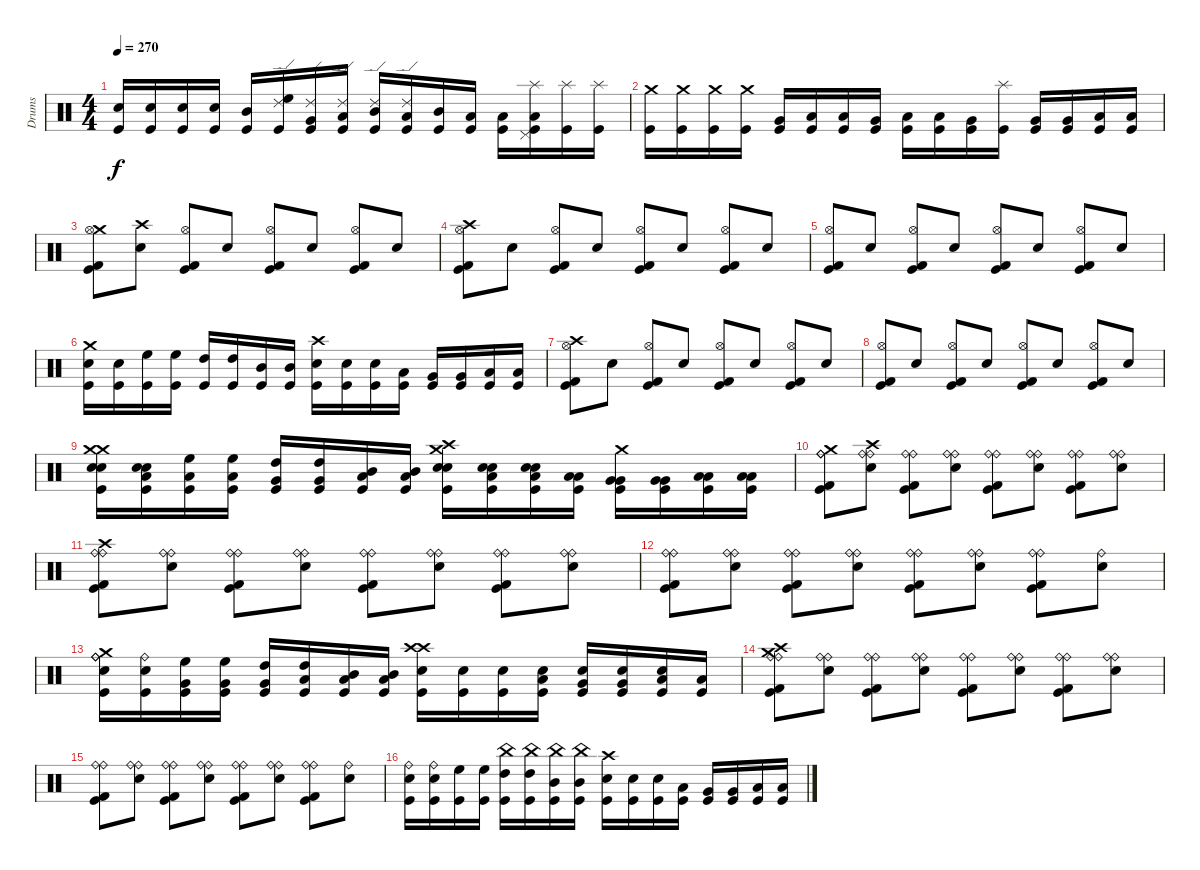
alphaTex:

\track ("Drums" "Drums") {instrument percussion}
\staff {score}
\articulation defaults
\ts (4 4)
\tempo 270
\clef neutral
\ks c
("Electric Snare (hit)" "Kick (hit)").16{dy f} ("Electric Snare (hit)" "Kick (hit)").16 ("Electric Snare (hit)" "Kick (hit)").16 ("Electric Snare (hit)" "Kick (hit)").16 ("Mid Tom (hit)" "Kick (hit)").16 ("Ride (edge) 2" "High Floor Tom (hit)" "Kick (hit)").16 ("Ride (edge) 2" "Very Low Tom (hit)" "Kick (hit)").16 ("Ride (edge) 2" "Low Tom (hit)" "Kick (hit)").16 ("Ride (edge) 2" "Mid Tom (hit)" "Kick (hit)").16 ("Ride (edge) 2" "Low Floor Tom (hit)" "Kick (hit)").16 ("Mid Tom (hit)" "Kick (hit)").16 ("Low Tom (hit)" "Kick (hit)").16 ("Low Floor Tom (hit)" "Kick (hit)").16 ("Pedal Hi-Hat (hit)" "Low Floor Tom (hit)" "Kick (hit)" "Splash (hit)").16 ("Kick (hit)" "Splash (hit)").16 ("Kick (hit)" "Splash (hit)").16 |
("Crash medium (hit)" "Kick (hit)").16 ("Crash medium (hit)" "Kick (hit)").16 ("Crash medium (hit)" "Kick (hit)").16 ("Crash medium (hit)" "Kick (hit)").16 ("Very Low Tom (hit)" "Kick (hit)").16 ("Low Tom (hit)" "Kick (hit)").16 ("Low Floor Tom (hit)" "Kick (hit)").16 ("Very Low Tom (hit)" "Kick (hit)").16 ("Low Floor Tom (hit)" "Kick (hit)").16 ("Low Floor Tom (hit)" "Kick (hit)").16 ("Very Low Tom (hit)" "Kick (hit)").16 ("Splash (hit)" "Kick (hit)").16 ("Very Low Tom (hit)" "Kick (hit)").16 ("Very Low Tom (hit)" "Kick (hit)").16 ("Low Floor Tom (hit)" "Kick (hit)").16 ("Low Floor Tom (hit)" "Kick (hit)").16 |
("Crash medium (hit)" "Hi-Hat (open)" "Kick (hit) 2" "Kick (hit)").8 ("Crash high (hit)" "Electric Snare (hit)").8 ("Hi-Hat (open)" "Kick (hit) 2" "Kick (hit)").8 "Electric Snare (hit)".8 ("Hi-Hat (open)" "Kick (hit) 2" "Kick (hit)").8 "Electric Snare (hit)".8 ("Hi-Hat (open)" "Kick (hit) 2" "Kick (hit)").8 "Electric Snare (hit)".8 |
("Crash high (hit)" "Hi-Hat (open)" "Kick (hit) 2" "Kick (hit)").8 "Electric Snare (hit)".8 ("Hi-Hat (open)" "Kick (hit) 2" "Kick (hit)").8 "Electric Snare (hit)".8 ("Hi-Hat (open)" "Kick (hit) 2" "Kick (hit)").8 "Electric Snare (hit)".8 ("Hi-Hat (open)" "Kick (hit) 2" "Kick (hit)").8 "Electric Snare (hit)".8 |
("Hi-Hat (open)" "Kick (hit) 2" "Kick (hit)").8 "Electric Snare (hit)".8 ("Hi-Hat (open)" "Kick (hit) 2" "Kick (hit)").8 "Electric Snare (hit)".8 ("Hi-Hat (open)" "Kick (hit) 2" "Kick (hit)").8 "Electric Snare (hit)".8 ("Hi-Hat (open)" "Kick (hit) 2" "Kick (hit)").8 "Electric Snare (hit)".8 |
("Crash medium (hit)" "Electric Snare (hit)" "Kick (hit)").16 ("Electric Snare (hit)" "Kick (hit)").16 ("High Floor Tom (hit)" "Kick (hit)").16 ("High Floor Tom (hit)" "Kick (hit)").16 ("High Tom (hit)" "Kick (hit)").16 ("High Tom (hit)" "Kick (hit)").16 ("Mid Tom (hit)" "Kick (hit)").16 ("Mid Tom (hit)" "Kick (hit)").16 ("Crash high (hit)" "Electric Snare (hit)" "Kick (hit)").16 ("Electric Snare (hit)" "Kick (hit)").16 ("Electric Snare (hit)" "Kick (hit)").16 ("Low Floor Tom (hit)" "Kick (hit)").16 ("Very Low Tom (hit)" "Kick (hit)").16 ("Very Low Tom (hit)" "Kick (hit)").16 ("Low Floor Tom (hit)" "Kick (hit)").16 ("Low Floor Tom (hit)" "Kick (hit)").16 |
("Crash high (hit)" "Hi-Hat (open)" "Kick (hit) 2" "Kick (hit)").8 "Electric Snare (hit)".8 ("Hi-Hat (open)" "Kick (hit) 2" "Kick (hit)").8 "Electric Snare (hit)".8 ("Hi-Hat (open)" "Kick (hit) 2" "Kick (hit)").8 "Electric Snare (hit)".8 ("Hi-Hat (open)" "Kick (hit) 2" "Kick (hit)").8 "Electric Snare (hit)".8 |
("Hi-Hat (open)" "Kick (hit) 2" "Kick (hit)").8 "Electric Snare (hit)".8 ("Hi-Hat (open)" "Kick (hit) 2" "Kick (hit)").8 "Electric Snare (hit)".8 ("Hi-Hat (open)" "Kick (hit) 2" "Kick (hit)").8 "Electric Snare (hit)".8 ("Hi-Hat (open)" "Kick (hit) 2" "Kick (hit)").8 "Electric Snare (hit)".8 |
("Electric Snare (hit)" "Crash medium (hit)" "Crash medium (hit)" "Electric Snare (hit)" "Kick (hit)").16 ("Electric Snare (hit)" "Low Tom (hit)" "Electric Snare (hit)" "Kick (hit)").16 ("Low Tom (hit)" "High Floor Tom (hit)" "Kick (hit)").16 ("Low Tom (hit)" "High Floor Tom (hit)" "Kick (hit)").16 ("Very Low Tom (hit)" "High Tom (hit)" "Kick (hit)").16 ("Very Low Tom (hit)" "High Tom (hit)" "Kick (hit)").16 ("Low Floor Tom (hit)" "Mid Tom (hit)" "Kick (hit)").16 ("Low Floor Tom (hit)" "Mid Tom (hit)" "Kick (hit)").16 ("Electric Snare (hit)" "Crash medium (hit)" "Crash high (hit)" "Electric Snare (hit)" "Kick (hit)").16 ("Electric Snare (hit)" "Low Tom (hit)" "Electric Snare (hit)" "Kick (hit)").16 ("Electric Snare (hit)" "Low Tom (hit)" "Electric Snare (hit)" "Kick (hit)").16 ("Low Tom (hit)" "Low Floor Tom (hit)" "Kick (hit)").16 ("Crash medium (hit)" "Very Low Tom (hit)" "Very Low Tom (hit)" "Kick (hit)").16 ("Very Low Tom (hit)" "Very Low Tom (hit)" "Kick (hit)").16 ("Low Floor Tom (hit)" "Low Floor Tom (hit)" "Kick (hit)").16 ("Low Floor Tom (hit)" "Low Floor Tom (hit)" "Kick (hit)").16 |
("Ride (bell)" "Crash medium (hit)" "Ride (bell)" "Kick (hit) 2" "Kick (hit)").8 ("Ride (bell)" "Crash high (hit)" "Ride (bell)" "Electric Snare (hit)").8 ("Ride (bell)" "Ride (bell)" "Kick (hit) 2" "Kick (hit)").8 ("Ride (bell)" "Ride (bell)" "Electric Snare (hit)").8 ("Ride (bell)" "Ride (bell)" "Kick (hit) 2" "Kick (hit)").8 ("Ride (bell)" "Ride (bell)" "Electric Snare (hit)").8 ("Ride (bell)" "Ride (bell)" "Kick (hit) 2" "Kick (hit)").8 ("Ride (bell)" "Ride (bell)" "Electric Snare (hit)").8 |
("Ride (bell)" "Crash high (hit)" "Ride (bell)" "Kick (hit) 2" "Kick (hit)").8 ("Ride (bell)" "Ride (bell)" "Electric Snare (hit)").8 ("Ride (bell)" "Ride (bell)" "Kick (hit) 2" "Kick (hit)").8 ("Ride (bell)" "Ride (bell)" "Electric Snare (hit)").8 ("Ride (bell)" "Ride (bell)" "Kick (hit) 2" "Kick (hit)").8 ("Ride (bell)" "Ride (bell)" "Electric Snare (hit)").8 ("Ride (bell)" "Ride (bell)" "Kick (hit) 2" "Kick (hit)").8 ("Ride (bell)" "Ride (bell)" "Electric Snare (hit)").8 |
("Ride (bell)" "Ride (bell)" "Kick (hit) 2" "Kick (hit)").8 ("Ride (bell)" "Ride (bell)" "Electric Snare (hit)").8 ("Ride (bell)" "Ride (bell)" "Kick (hit) 2" "Kick (hit)").8 ("Ride (bell)" "Ride (bell)" "Electric Snare (hit)").8 ("Ride (bell)" "Ride (bell)" "Kick (hit) 2" "Kick (hit)").8 ("Ride (bell)" "Ride (bell)" "Electric Snare (hit)").8 ("Ride (bell)" "Ride (bell)" "Kick (hit) 2" "Kick (hit)").8 ("Ride (bell)" "Electric Snare (hit)").8 |
("Crash medium (hit)" "Ride (bell)" "Ride (bell)" "Electric Snare (hit)" "Kick (hit)").16 ("Ride (bell)" "Electric Snare (hit)" "Kick (hit)").16 ("Very Low Tom (hit)" "High Floor Tom (hit)" "Kick (hit)").16 ("Very Low Tom (hit)" "High Floor Tom (hit)" "Kick (hit)").16 ("Very Low Tom (hit)" "High Tom (hit)" "Kick (hit)").16 ("Low Floor Tom (hit)" "High Tom (hit)" "Kick (hit)").16 ("Low Floor Tom (hit)" "Mid Tom (hit)" "Kick (hit)").16 ("Low Floor Tom (hit)" "Mid Tom (hit)" "Kick (hit)").16 ("Crash high (hit)" "Crash high (hit)" "Electric Snare (hit)" "Kick (hit)").16 ("Electric Snare (hit)" "Kick (hit)").16 ("Electric Snare (hit)" "Kick (hit)").16 ("Electric Snare (hit)" "Low Floor Tom (hit)" "Kick (hit)").16 ("Electric Snare (hit)" "Very Low Tom (hit)" "Kick (hit)").16 ("Electric Snare (hit)" "Very Low Tom (hit)" "Kick (hit)").16 ("Electric Snare (hit)" "Low Floor Tom (hit)" "Kick (hit)").16 ("Low Floor Tom (hit)" "Kick (hit)").16 |
("Crash medium (hit)" "Ride (bell)" "Crash high (hit)" "Ride (bell)" "Kick (hit) 2" "Kick (hit)").8 ("Ride (bell)" "Ride (bell)" "Electric Snare (hit)").8 ("Ride (bell)" "Ride (bell)" "Kick (hit) 2" "Kick (hit)").8 ("Ride (bell)" "Ride (bell)" "Electric Snare (hit)").8 ("Ride (bell)" "Ride (bell)" "Kick (hit) 2" "Kick (hit)").8 ("Ride (bell)" "Ride (bell)" "Electric Snare (hit)").8 ("Ride (bell)" "Ride (bell)" "Kick (hit) 2" "Kick (hit)").8 ("Ride (bell)" "Ride (bell)" "Electric Snare (hit)").8 |
("Ride (bell)" "Ride (bell)" "Kick (hit) 2" "Kick (hit)").8 ("Ride (bell)" "Ride (bell)" "Electric Snare (hit)").8 ("Ride (bell)" "Ride (bell)" "Kick (hit) 2" "Kick (hit)").8 ("Ride (bell)" "Ride (bell)" "Electric Snare (hit)").8 ("Ride (bell)" "Ride (bell)" "Kick (hit) 2" "Kick (hit)").8 ("Ride (bell)" "Ride (bell)" "Electric Snare (hit)").8 ("Ride (bell)" "Ride (bell)" "Kick (hit) 2" "Kick (hit)").8 ("Ride (bell)" "Electric Snare (hit)").8 |
("Ride (bell)" "Electric Snare (hit)" "Kick (hit)").16 ("Ride (bell)" "Electric Snare (hit)" "Kick (hit)").16 ("High Floor Tom (hit)" "Kick (hit)").16 ("High Floor Tom (hit)" "Kick (hit)").16 ("China (hit)" "High Tom (hit)" "Kick (hit)").16 ("China (hit)" "High Tom (hit)" "Kick (hit)").16 ("China (hit)" "Mid Tom (hit)" "Kick (hit)").16 ("China (hit)" "Mid Tom (hit)" "Kick (hit)").16 ("Crash high (hit)" "Electric Snare (hit)" "Kick (hit)").16 ("Electric Snare (hit)" "Kick (hit)").16 ("Electric Snare (hit)" "Kick (hit)").16 ("Low Floor Tom (hit)" "Kick (hit)").16 ("Very Low Tom (hit)" "Kick (hit)").16 ("Very Low Tom (hit)" "Kick (hit)").16 ("Low Floor Tom (hit)" "Kick (hit)").16 ("Low Floor Tom (hit)" "Kick (hit)").16
